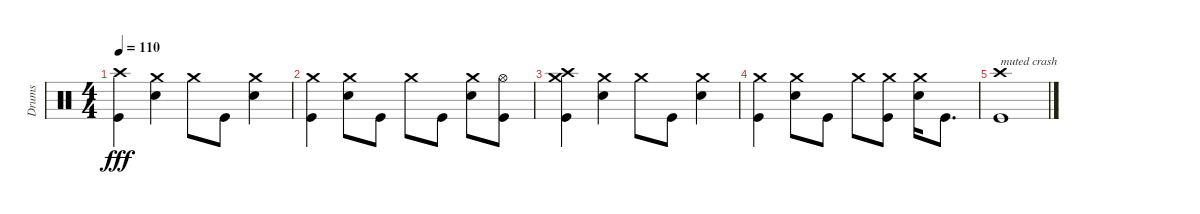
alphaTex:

\track ("Drums" "Drums") {instrument percussion}
\staff {score}
\articulation defaults
\ts (4 4)
\tempo 110
\clef neutral
\ks c
("Crash high (hit)" "Kick (hit)").4{dy fff} ("Crash medium (hit)" "Snare (hit) 2").4 "Crash medium (hit)".8 "Kick (hit)".8 ("Crash medium (hit)" "Snare (hit) 2").4 |
("Crash medium (hit)" "Kick (hit)").4 ("Crash medium (hit)" "Snare (hit) 2").8 "Kick (hit)".8 "Crash medium (hit)".8 "Kick (hit)".8 ("Crash medium (hit)" "Snare (hit) 2").8 ("Hi-Hat (open)" "Kick (hit)").8 |
("Crash medium (hit)" "Crash high (hit)" "Kick (hit)").4 ("Crash medium (hit)" "Snare (hit) 2").4 "Crash medium (hit)".8 "Kick (hit)".8 ("Crash medium (hit)" "Snare (hit) 2").4 |
("Crash medium (hit)" "Kick (hit)").4 ("Crash medium (hit)" "Snare (hit) 2").8 "Kick (hit)".8 "Crash medium (hit)".8 ("Crash medium (hit)" "Kick (hit)").8 ("Crash medium (hit)" "Snare (hit) 2").16 "Kick (hit)".8{d} |
("Crash high (hit)" "Kick (hit)").1{txt "muted crash"}
